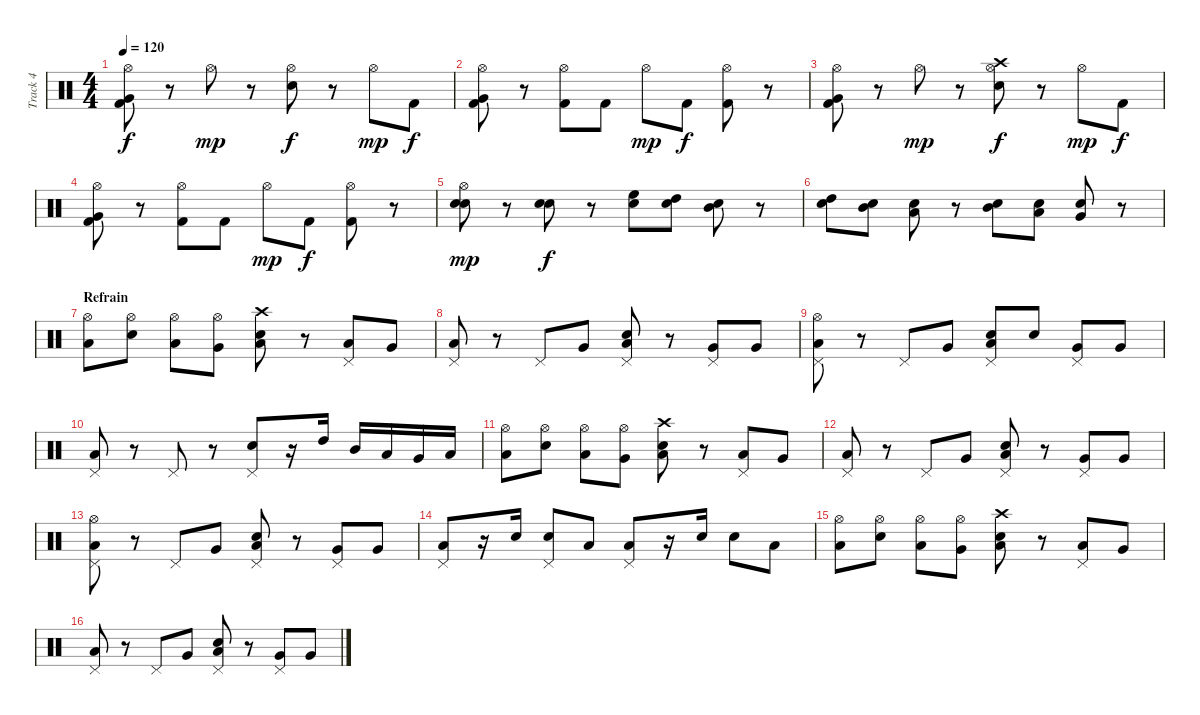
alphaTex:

\track ("Track 4" "Track 4") {instrument percussion}
\staff {score}
\articulation defaults
\ts (4 4)
\tempo 120
\clef neutral
\ks c
("Hi-Hat (open)" "Kick (hit) 2" "Very Low Tom (hit)").8{dy f} r.8 "Hi-Hat (open)".8{dy mp} r.8 ("Hi-Hat (open)" "Snare (hit) 2").8{dy f} r.8 "Hi-Hat (open)".8{dy mp} "Kick (hit) 2".8{dy f} |
("Hi-Hat (open)" "Kick (hit) 2" "Very Low Tom (hit)").8 r.8 ("Hi-Hat (open)" "Kick (hit) 2").8 "Kick (hit) 2".8 "Hi-Hat (open)".8{dy mp} "Kick (hit) 2".8{dy f} ("Hi-Hat (open)" "Kick (hit) 2").8 r.8 |
("Hi-Hat (open)" "Kick (hit) 2" "Very Low Tom (hit)").8 r.8 "Hi-Hat (open)".8{dy mp} r.8 ("Hi-Hat (open)" "Snare (hit) 2" "Crash high (hit)").8{dy f} r.8 "Hi-Hat (open)".8{dy mp} "Kick (hit) 2".8{dy f} |
("Hi-Hat (open)" "Kick (hit) 2" "Very Low Tom (hit)").8 r.8 ("Hi-Hat (open)" "Kick (hit) 2").8 "Kick (hit) 2".8 "Hi-Hat (open)".8{dy mp} "Kick (hit) 2".8{dy f} ("Hi-Hat (open)" "Kick (hit) 2").8 r.8 |
("Snare (hit) 2" "Electric Snare (hit)" "Hi-Hat (open)").8{dy mp} r.8 ("Snare (hit) 2" "Electric Snare (hit)").8{dy f} r.8 ("Electric Snare (hit)" "High Floor Tom (hit)").8 ("Electric Snare (hit)" "High Tom (hit)").8 ("Electric Snare (hit)" "Mid Tom (hit)").8 r.8 |
("Electric Snare (hit)" "High Tom (hit)").8 ("Electric Snare (hit)" "Mid Tom (hit)").8 ("Electric Snare (hit)" "Low Tom (hit)").8 r.8 ("Electric Snare (hit)" "Mid Tom (hit)").8 ("Electric Snare (hit)" "Low Tom (hit)").8 ("Electric Snare (hit)" "Very Low Tom (hit)").8 r.8 |
\section ("" "Refrain")
("Low Tom (hit)" "Hi-Hat (open)").8 ("Electric Snare (hit)" "Hi-Hat (open)").8 ("Low Tom (hit)" "Hi-Hat (open)").8 ("Very Low Tom (hit)" "Hi-Hat (open)").8 ("Low Tom (hit)" "Electric Snare (hit)" "Crash high (hit)").8 r.8 ("Pedal Hi-Hat (hit)" "Low Floor Tom (hit)").8 "Very Low Tom (hit)".8 |
("Pedal Hi-Hat (hit)" "Low Tom (hit)").8 r.8 "Pedal Hi-Hat (hit)".8 "Very Low Tom (hit)".8 ("Pedal Hi-Hat (hit)" "Low Tom (hit)" "Electric Snare (hit)").8 r.8 ("Pedal Hi-Hat (hit)" "Very Low Tom (hit)").8 "Very Low Tom (hit)".8 |
("Pedal Hi-Hat (hit)" "Low Tom (hit)" "Hi-Hat (open)").8 r.8 "Pedal Hi-Hat (hit)".8 "Very Low Tom (hit)".8 ("Pedal Hi-Hat (hit)" "Low Tom (hit)" "Electric Snare (hit)").8 "Electric Snare (hit)".8 ("Pedal Hi-Hat (hit)" "Very Low Tom (hit)").8 "Very Low Tom (hit)".8 |
("Pedal Hi-Hat (hit)" "Low Tom (hit)").8 r.8 "Pedal Hi-Hat (hit)".8 r.8 ("Pedal Hi-Hat (hit)" "Electric Snare (hit)").8 r.16 "High Tom (hit)".16 "Mid Tom (hit)".16 "Low Tom (hit)".16 "Very Low Tom (hit)".16 "Low Floor Tom (hit)".16 |
("Low Tom (hit)" "Hi-Hat (open)").8 ("Electric Snare (hit)" "Hi-Hat (open)").8 ("Low Tom (hit)" "Hi-Hat (open)").8 ("Very Low Tom (hit)" "Hi-Hat (open)").8 ("Low Tom (hit)" "Electric Snare (hit)" "Crash high (hit)").8 r.8 ("Pedal Hi-Hat (hit)" "Low Floor Tom (hit)").8 "Very Low Tom (hit)".8 |
("Pedal Hi-Hat (hit)" "Low Tom (hit)").8 r.8 "Pedal Hi-Hat (hit)".8 "Very Low Tom (hit)".8 ("Pedal Hi-Hat (hit)" "Low Tom (hit)" "Electric Snare (hit)").8 r.8 ("Pedal Hi-Hat (hit)" "Very Low Tom (hit)").8 "Very Low Tom (hit)".8 |
("Pedal Hi-Hat (hit)" "Low Tom (hit)" "Hi-Hat (open)").8 r.8 "Pedal Hi-Hat (hit)".8 "Very Low Tom (hit)".8 ("Pedal Hi-Hat (hit)" "Low Tom (hit)" "Electric Snare (hit)").8 r.8 ("Pedal Hi-Hat (hit)" "Very Low Tom (hit)").8 "Very Low Tom (hit)".8 |
("Pedal Hi-Hat (hit)" "Low Tom (hit)").8 r.16 "Electric Snare (hit)".16 ("Pedal Hi-Hat (hit)" "Electric Snare (hit)").8 "Low Tom (hit)".8 ("Pedal Hi-Hat (hit)" "Low Tom (hit)").8 r.16 "Electric Snare (hit)".16 "Electric Snare (hit)".8 "Low Tom (hit)".8 |
("Low Tom (hit)" "Hi-Hat (open)").8 ("Electric Snare (hit)" "Hi-Hat (open)").8 ("Low Tom (hit)" "Hi-Hat (open)").8 ("Very Low Tom (hit)" "Hi-Hat (open)").8 ("Low Tom (hit)" "Electric Snare (hit)" "Crash high (hit)").8 r.8 ("Pedal Hi-Hat (hit)" "Low Floor Tom (hit)").8 "Very Low Tom (hit)".8 |
("Pedal Hi-Hat (hit)" "Low Tom (hit)").8 r.8 "Pedal Hi-Hat (hit)".8 "Very Low Tom (hit)".8 ("Pedal Hi-Hat (hit)" "Low Tom (hit)" "Electric Snare (hit)").8 r.8 ("Pedal Hi-Hat (hit)" "Very Low Tom (hit)").8 "Very Low Tom (hit)".8
